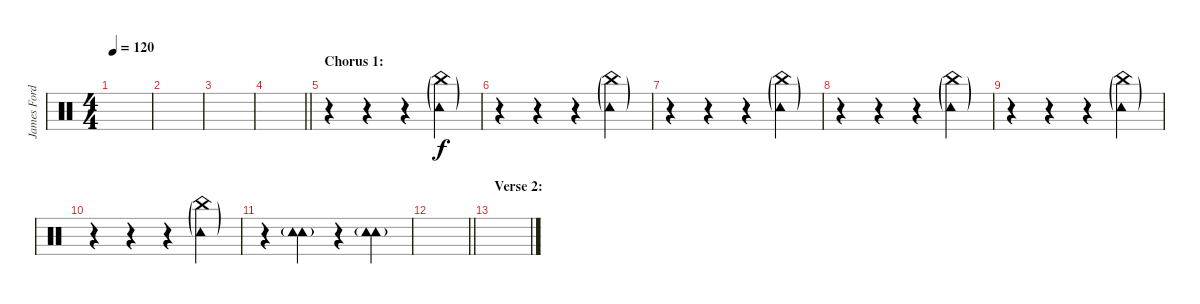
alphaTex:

\track ("James Ford (Percussion)" "James Ford") {instrument percussion}
\staff {score}
\articulation defaults
\ts (4 4)
\tempo 120
\clef neutral
\ks c
|
|
|
\barLineRight lightlight
|
\section ("" "Chorus 1:")
r.4 r.4 r.4 ("China (hit)"{g} "Tambourine (hit)"{g}).4 |
r.4 r.4 r.4 ("China (hit)"{g} "Tambourine (hit)"{g}).4 |
r.4 r.4 r.4 ("China (hit)"{g} "Tambourine (hit)"{g}).4 |
r.4 r.4 r.4 ("China (hit)"{g} "Tambourine (hit)"{g}).4 |
r.4 r.4 r.4 ("China (hit)"{g} "Tambourine (hit)"{g}).4 |
r.4 r.4 r.4 ("China (hit)"{g} "Tambourine (hit)"{g}).4 |
r.4 ("Tambourine (hit)"{g} "Tambourine (hit)"{g}).4 r.4 ("Tambourine (hit)"{g} "Tambourine (hit)"{g}).4 |
\barLineRight lightlight
|
\section ("" "Verse 2:")
